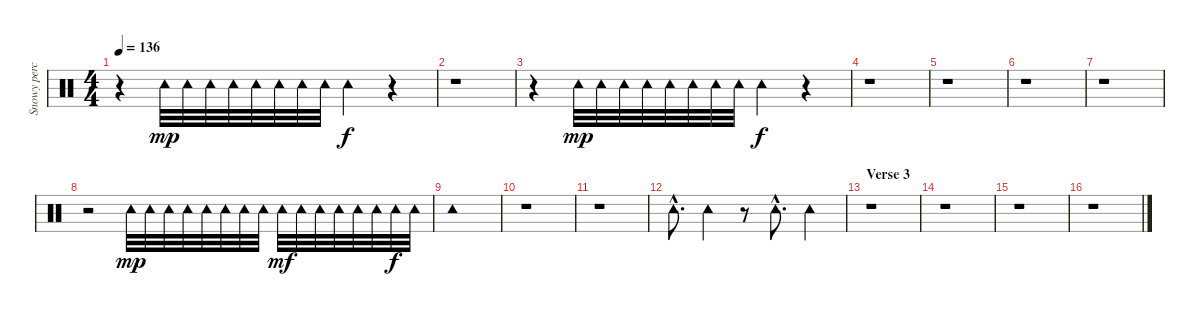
\track ("Snowy percussion" "Snowy perc") {instrument percussion}
\staff {score}
\articulation defaults
\ts (4 4)
\tempo 136
\clef neutral
\ks c
r.4{dy f} "Tambourine (hit)".32{dy mp} "Tambourine (hit)".32 "Tambourine (hit)".32 "Tambourine (hit)".32 "Tambourine (hit)".32 "Tambourine (hit)".32 "Tambourine (hit)".32 "Tambourine (hit)".32 "Tambourine (hit)".4{dy f} r.4 |
r.1 |
r.4 "Tambourine (hit)".32{dy mp} "Tambourine (hit)".32 "Tambourine (hit)".32 "Tambourine (hit)".32 "Tambourine (hit)".32 "Tambourine (hit)".32 "Tambourine (hit)".32 "Tambourine (hit)".32 "Tambourine (hit)".4{dy f} r.4 |
r.1 |
r.1 |
r.1 |
r.1 |
r.2 "Tambourine (hit)".32{dy mp} "Tambourine (hit)".32 "Tambourine (hit)".32 "Tambourine (hit)".32 "Tambourine (hit)".32 "Tambourine (hit)".32 "Tambourine (hit)".32 "Tambourine (hit)".32 "Tambourine (hit)".32{dy mf} "Tambourine (hit)".32 "Tambourine (hit)".32 "Tambourine (hit)".32 "Tambourine (hit)".32 "Tambourine (hit)".32 "Tambourine (hit)".32{dy f} "Tambourine (hit)".32 |
"Tambourine (hit)".1 |
r.1 |
r.1 |
"Tambourine (hit)"{hac}.8{d} "Tambourine (hit)".4 r.8 "Tambourine (hit)"{hac}.8{d} "Tambourine (hit)".4 |
\section ("" "Verse 3")
r.1 |
r.1 |
r.1 |
r.1
